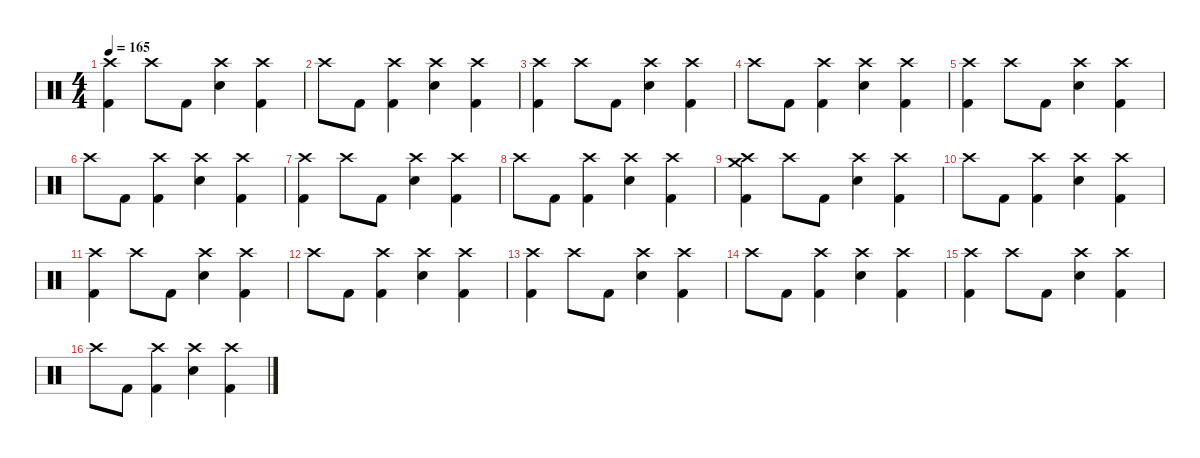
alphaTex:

\defaultSystemsLayout 4
\hideDynamics
\bracketExtendMode nobrackets
\singleTrackTrackNamePolicy hidden
\multiTrackTrackNamePolicy hidden
\firstSystemTrackNameMode fullname
\otherSystemsTrackNameOrientation horizontal
\track ("Marty Chapman (Drums)" "drm.") {instrument percussion}
\staff {score}
\articulation defaults
\ts (4 4)
\tempo 165
\clef neutral
\ks c
("Crash high (hit)" "Kick (hit) 2").4{dy f beam Down} "Crash high (hit)".8{beam Down} "Kick (hit) 2".8{beam Down} ("Crash high (hit)" "Snare (hit) 2").4{beam Down} ("Crash high (hit)" "Kick (hit) 2").4{beam Down} |
"Crash high (hit)".8{beam Down} "Kick (hit) 2".8{beam Down} ("Crash high (hit)" "Kick (hit) 2").4{beam Down} ("Crash high (hit)" "Snare (hit) 2").4{beam Down} ("Crash high (hit)" "Kick (hit) 2").4{beam Down} |
("Crash high (hit)" "Kick (hit) 2").4{beam Down} "Crash high (hit)".8{beam Down} "Kick (hit) 2".8{beam Down} ("Crash high (hit)" "Snare (hit) 2").4{beam Down} ("Crash high (hit)" "Kick (hit) 2").4{beam Down} |
"Crash high (hit)".8{beam Down} "Kick (hit) 2".8{beam Down} ("Crash high (hit)" "Kick (hit) 2").4{beam Down} ("Crash high (hit)" "Snare (hit) 2").4{beam Down} ("Crash high (hit)" "Kick (hit) 2").4{beam Down} |
("Crash high (hit)" "Kick (hit) 2").4{beam Down} "Crash high (hit)".8{beam Down} "Kick (hit) 2".8{beam Down} ("Crash high (hit)" "Snare (hit) 2").4{beam Down} ("Crash high (hit)" "Kick (hit) 2").4{beam Down} |
"Crash high (hit)".8{beam Down} "Kick (hit) 2".8{beam Down} ("Crash high (hit)" "Kick (hit) 2").4{beam Down} ("Crash high (hit)" "Snare (hit) 2").4{beam Down} ("Crash high (hit)" "Kick (hit) 2").4{beam Down} |
("Crash high (hit)" "Kick (hit) 2").4{beam Down} "Crash high (hit)".8{beam Down} "Kick (hit) 2".8{beam Down} ("Crash high (hit)" "Snare (hit) 2").4{beam Down} ("Crash high (hit)" "Kick (hit) 2").4{beam Down} |
"Crash high (hit)".8{beam Down} "Kick (hit) 2".8{beam Down} ("Crash high (hit)" "Kick (hit) 2").4{beam Down} ("Crash high (hit)" "Snare (hit) 2").4{beam Down} ("Crash high (hit)" "Kick (hit) 2").4{beam Down} |
("Crash medium (hit)" "Crash high (hit)" "Kick (hit) 2").4{beam Down} "Crash high (hit)".8{beam Down} "Kick (hit) 2".8{beam Down} ("Crash high (hit)" "Snare (hit) 2").4{beam Down} ("Crash high (hit)" "Kick (hit) 2").4{beam Down} |
"Crash high (hit)".8{beam Down} "Kick (hit) 2".8{beam Down} ("Crash high (hit)" "Kick (hit) 2").4{beam Down} ("Crash high (hit)" "Snare (hit) 2").4{beam Down} ("Crash high (hit)" "Kick (hit) 2").4{beam Down} |
("Crash high (hit)" "Kick (hit) 2").4{beam Down} "Crash high (hit)".8{beam Down} "Kick (hit) 2".8{beam Down} ("Crash high (hit)" "Snare (hit) 2").4{beam Down} ("Crash high (hit)" "Kick (hit) 2").4{beam Down} |
"Crash high (hit)".8{beam Down} "Kick (hit) 2".8{beam Down} ("Crash high (hit)" "Kick (hit) 2").4{beam Down} ("Crash high (hit)" "Snare (hit) 2").4{beam Down} ("Crash high (hit)" "Kick (hit) 2").4{beam Down} |
("Crash high (hit)" "Kick (hit) 2").4{beam Down} "Crash high (hit)".8{beam Down} "Kick (hit) 2".8{beam Down} ("Crash high (hit)" "Snare (hit) 2").4{beam Down} ("Crash high (hit)" "Kick (hit) 2").4{beam Down} |
"Crash high (hit)".8{beam Down} "Kick (hit) 2".8{beam Down} ("Crash high (hit)" "Kick (hit) 2").4{beam Down} ("Crash high (hit)" "Snare (hit) 2").4{beam Down} ("Crash high (hit)" "Kick (hit) 2").4{beam Down} |
("Crash high (hit)" "Kick (hit) 2").4{beam Down} "Crash high (hit)".8{beam Down} "Kick (hit) 2".8{beam Down} ("Crash high (hit)" "Snare (hit) 2").4{beam Down} ("Crash high (hit)" "Kick (hit) 2").4{beam Down} |
"Crash high (hit)".8{beam Down} "Kick (hit) 2".8{beam Down} ("Crash high (hit)" "Kick (hit) 2").4{beam Down} ("Crash high (hit)" "Snare (hit) 2").4{beam Down} ("Crash high (hit)" "Kick (hit) 2").4{beam Down}
